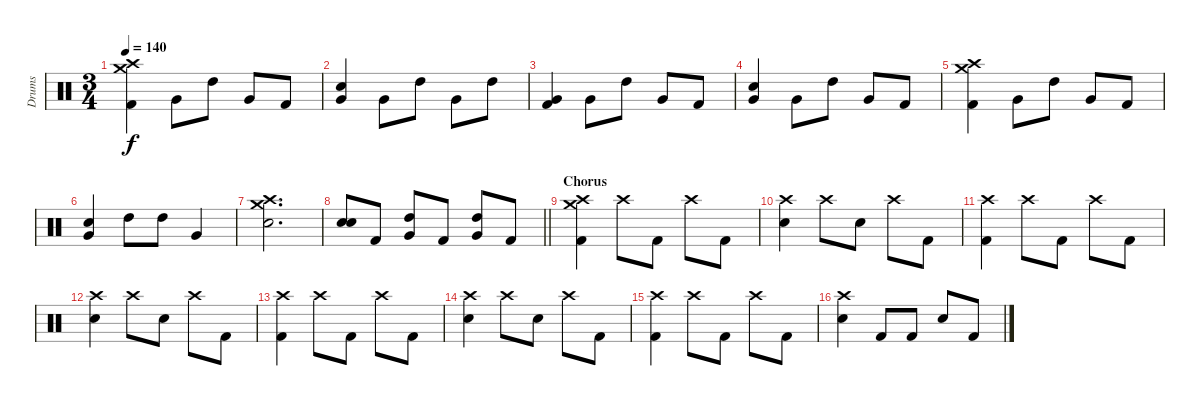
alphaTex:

\track ("Drums" "Drums") {instrument percussion}
\staff {score}
\articulation defaults
\ts (3 4)
\tempo 140
\clef neutral
\ks c
("Kick (hit) 2" "Crash medium (hit)" "Crash high (hit)").4{dy f} "Very Low Tom (hit)".8 "High Tom (hit)".8 "Very Low Tom (hit)".8 "Kick (hit) 2".8 |
("Very Low Tom (hit)" "Electric Snare (hit)").4 "Very Low Tom (hit)".8 "High Tom (hit)".8 "Very Low Tom (hit)".8 "High Tom (hit)".8 |
("Kick (hit) 2" "Very Low Tom (hit)").4 "Very Low Tom (hit)".8 "High Tom (hit)".8 "Very Low Tom (hit)".8 "Kick (hit) 2".8 |
("Very Low Tom (hit)" "Electric Snare (hit)").4 "Very Low Tom (hit)".8 "High Tom (hit)".8 "Very Low Tom (hit)".8 "Kick (hit) 2".8 |
("Kick (hit) 2" "Crash high (hit)" "Crash medium (hit)").4 "Very Low Tom (hit)".8 "High Tom (hit)".8 "Very Low Tom (hit)".8 "Kick (hit) 2".8 |
("Very Low Tom (hit)" "Electric Snare (hit)").4 "High Tom (hit)".8 "High Tom (hit)".8 "Very Low Tom (hit)".4 |
("Snare (hit)" "Crash high (hit)" "Crash medium (hit)").2{d} |
\barLineRight lightlight
("Electric Snare (hit)" "Electric Snare (hit)").8 "Kick (hit) 2".8 ("Very Low Tom (hit)" "High Tom (hit)").8 "Kick (hit) 2".8 ("Very Low Tom (hit)" "High Tom (hit)").8 "Kick (hit) 2".8 |
\section ("" "Chorus")
("Kick (hit) 2" "Crash high (hit)" "Crash medium (hit)").4 "Crash high (hit)".8 "Kick (hit) 2".8 "Crash high (hit)".8 "Kick (hit) 2".8 |
("Electric Snare (hit)" "Crash high (hit)").4 "Crash high (hit)".8 "Electric Snare (hit)".8 "Crash high (hit)".8 "Kick (hit) 2".8 |
("Kick (hit) 2" "Crash high (hit)").4 "Crash high (hit)".8 "Kick (hit) 2".8 "Crash high (hit)".8 "Kick (hit) 2".8 |
("Electric Snare (hit)" "Crash high (hit)").4 "Crash high (hit)".8 "Electric Snare (hit)".8 "Crash high (hit)".8 "Kick (hit) 2".8 |
("Kick (hit) 2" "Crash high (hit)").4 "Crash high (hit)".8 "Kick (hit) 2".8 "Crash high (hit)".8 "Kick (hit) 2".8 |
("Electric Snare (hit)" "Crash high (hit)").4 "Crash high (hit)".8 "Electric Snare (hit)".8 "Crash high (hit)".8 "Kick (hit) 2".8 |
("Kick (hit) 2" "Crash high (hit)").4 "Crash high (hit)".8 "Kick (hit) 2".8 "Crash high (hit)".8 "Kick (hit) 2".8 |
("Electric Snare (hit)" "Crash high (hit)").4 "Kick (hit) 2".8 "Kick (hit) 2".8 "Electric Snare (hit)".8 "Kick (hit) 2".8
